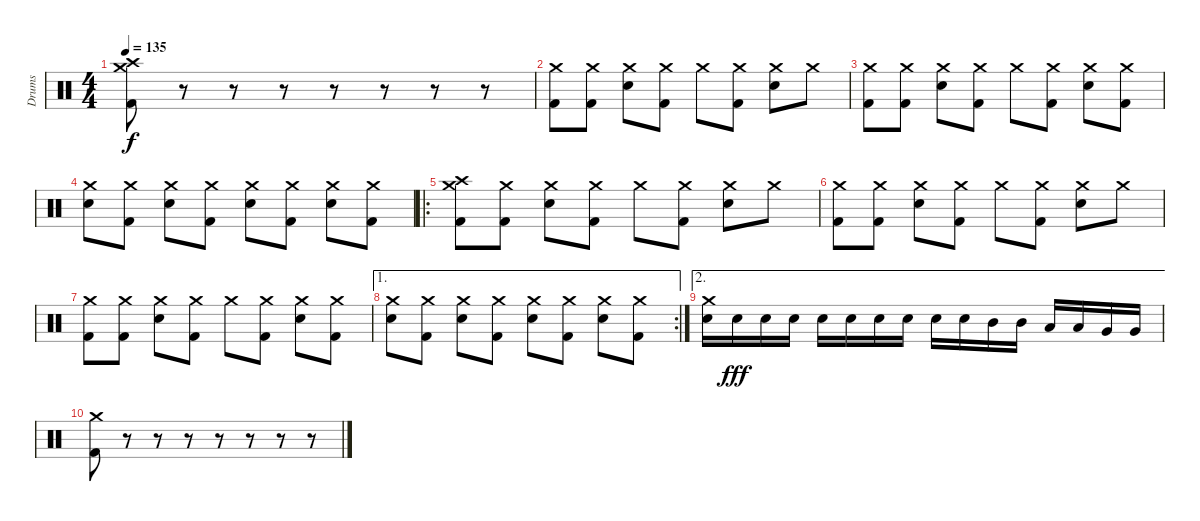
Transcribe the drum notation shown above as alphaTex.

\track ("Drums" "Drums") {instrument percussion}
\staff {score}
\articulation defaults
\ts (4 4)
\tempo 135
\clef neutral
\ks c
("Crash medium (hit)" "Crash high (hit)" "Kick (hit) 2").8{dy f} r.8 r.8 r.8 r.8 r.8 r.8 r.8 |
("Crash medium (hit)" "Kick (hit) 2").8 ("Crash medium (hit)" "Kick (hit) 2").8 ("Crash medium (hit)" "Electric Snare (hit)").8 ("Crash medium (hit)" "Kick (hit) 2").8 "Crash medium (hit)".8 ("Crash medium (hit)" "Kick (hit) 2").8 ("Crash medium (hit)" "Electric Snare (hit)").8 "Crash medium (hit)".8 |
("Crash medium (hit)" "Kick (hit) 2").8 ("Crash medium (hit)" "Kick (hit) 2").8 ("Crash medium (hit)" "Electric Snare (hit)").8 ("Crash medium (hit)" "Kick (hit) 2").8 "Crash medium (hit)".8 ("Crash medium (hit)" "Kick (hit) 2").8 ("Crash medium (hit)" "Electric Snare (hit)").8 ("Crash medium (hit)" "Kick (hit) 2").8 |
("Crash medium (hit)" "Electric Snare (hit)").8 ("Crash medium (hit)" "Kick (hit) 2").8 ("Crash medium (hit)" "Electric Snare (hit)").8 ("Crash medium (hit)" "Kick (hit) 2").8 ("Crash medium (hit)" "Electric Snare (hit)").8 ("Crash medium (hit)" "Kick (hit) 2").8 ("Crash medium (hit)" "Electric Snare (hit)").8 ("Crash medium (hit)" "Kick (hit) 2").8 |
\ro
("Crash medium (hit)" "Crash high (hit)" "Kick (hit) 2").8 ("Crash medium (hit)" "Kick (hit) 2").8 ("Crash medium (hit)" "Electric Snare (hit)").8 ("Crash medium (hit)" "Kick (hit) 2").8 "Crash medium (hit)".8 ("Crash medium (hit)" "Kick (hit) 2").8 ("Crash medium (hit)" "Electric Snare (hit)").8 "Crash medium (hit)".8 |
("Crash medium (hit)" "Kick (hit) 2").8 ("Crash medium (hit)" "Kick (hit) 2").8 ("Crash medium (hit)" "Electric Snare (hit)").8 ("Crash medium (hit)" "Kick (hit) 2").8 "Crash medium (hit)".8 ("Crash medium (hit)" "Kick (hit) 2").8 ("Crash medium (hit)" "Electric Snare (hit)").8 "Crash medium (hit)".8 |
("Crash medium (hit)" "Kick (hit) 2").8 ("Crash medium (hit)" "Kick (hit) 2").8 ("Crash medium (hit)" "Electric Snare (hit)").8 ("Crash medium (hit)" "Kick (hit) 2").8 "Crash medium (hit)".8 ("Crash medium (hit)" "Kick (hit) 2").8 ("Crash medium (hit)" "Electric Snare (hit)").8 ("Crash medium (hit)" "Kick (hit) 2").8 |
\ae 1
\rc 2
("Crash medium (hit)" "Electric Snare (hit)").8 ("Crash medium (hit)" "Kick (hit) 2").8 ("Crash medium (hit)" "Electric Snare (hit)").8 ("Crash medium (hit)" "Kick (hit) 2").8 ("Crash medium (hit)" "Electric Snare (hit)").8 ("Crash medium (hit)" "Kick (hit) 2").8 ("Crash medium (hit)" "Electric Snare (hit)").8 ("Crash medium (hit)" "Kick (hit) 2").8 |
\ae 2
("Crash medium (hit)" "Electric Snare (hit)").16 "Electric Snare (hit)".16{dy fff} "Electric Snare (hit)".16 "Electric Snare (hit)".16 "Electric Snare (hit)".16 "Electric Snare (hit)".16 "Electric Snare (hit)".16 "Electric Snare (hit)".16 "Electric Snare (hit)".16 "Electric Snare (hit)".16 "Mid Tom (hit)".16 "Mid Tom (hit)".16 "Low Tom (hit)".16 "Low Tom (hit)".16 "Very Low Tom (hit)".16 "Very Low Tom (hit)".16 |
("Crash medium (hit)" "Kick (hit) 2").8 r.8 r.8 r.8 r.8 r.8 r.8 r.8
